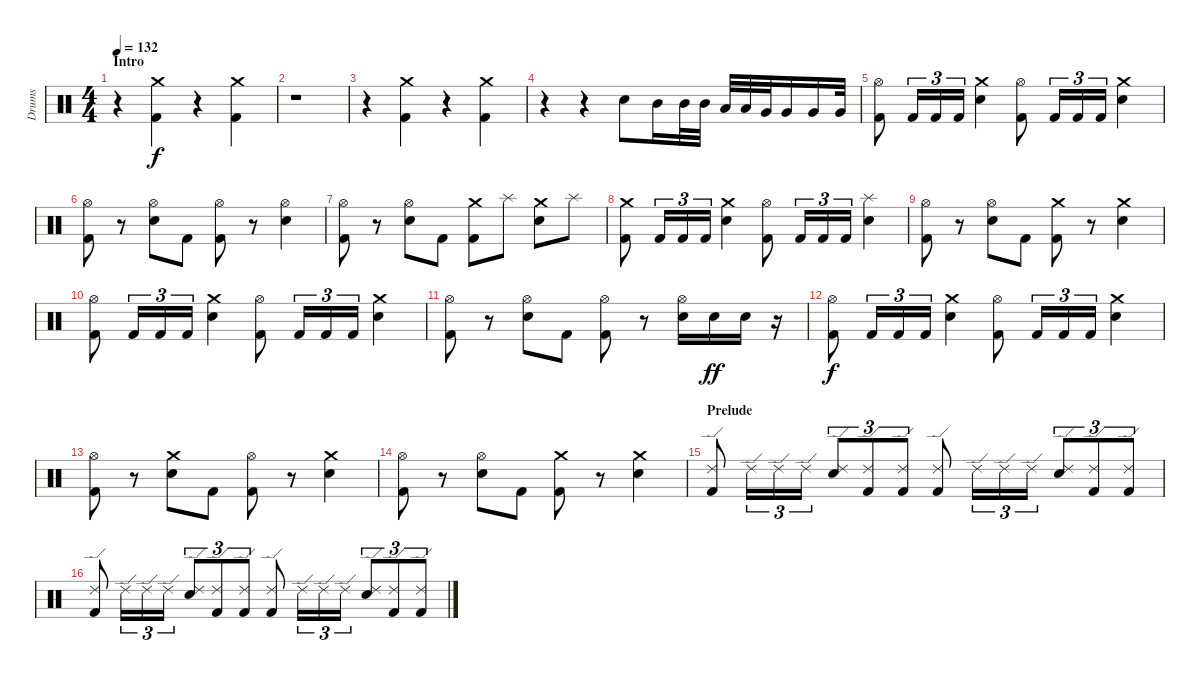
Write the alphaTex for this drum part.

\track ("Drums" "Drums") {instrument percussion}
\staff {score}
\articulation defaults
\ts (4 4)
\section ("" "Intro")
\tempo 132
\clef neutral
\ks c
r.4{dy f} ("Crash medium (hit)" "Kick (hit) 2").4 r.4 ("Crash medium (hit)" "Kick (hit) 2").4 |
r.1 |
r.4 ("Crash medium (hit)" "Kick (hit) 2").4 r.4 ("Crash medium (hit)" "Kick (hit) 2").4 |
r.4 r.4 "Electric Snare (hit)".8 "Mid Tom (hit)".16 "Mid Tom (hit)".32 "Mid Tom (hit)".32 "Low Tom (hit)".32 "Low Tom (hit)".32 "Very Low Tom (hit)".32 "Very Low Tom (hit)".16 "Very Low Tom (hit)".16 "Very Low Tom (hit)".32 |
("Hi-Hat (open)" "Kick (hit) 2").8 "Kick (hit) 2".16{tu (3 2)} "Kick (hit) 2".16{tu (3 2)} "Kick (hit) 2".16{tu (3 2)} ("Crash medium (hit)" "Electric Snare (hit)").4 ("Hi-Hat (open)" "Kick (hit) 2").8 "Kick (hit) 2".16{tu (3 2)} "Kick (hit) 2".16{tu (3 2)} "Kick (hit) 2".16{tu (3 2)} ("Crash medium (hit)" "Electric Snare (hit)").4 |
("Hi-Hat (open)" "Kick (hit) 2").8 r.8 ("Hi-Hat (open)" "Electric Snare (hit)").8 "Kick (hit) 2".8 ("Hi-Hat (open)" "Kick (hit) 2").8 r.8 ("Hi-Hat (open)" "Electric Snare (hit)").4 |
("Hi-Hat (open)" "Kick (hit) 2").8 r.8 ("Hi-Hat (open)" "Electric Snare (hit)").8 "Kick (hit) 2".8 ("Crash medium (hit)" "Kick (hit) 2").8 "Splash (hit)".8 ("Crash medium (hit)" "Electric Snare (hit)").8 "Splash (hit)".8 |
("Crash medium (hit)" "Kick (hit) 2").8 "Kick (hit) 2".16{tu (3 2)} "Kick (hit) 2".16{tu (3 2)} "Kick (hit) 2".16{tu (3 2)} ("Crash medium (hit)" "Electric Snare (hit)").4 ("Hi-Hat (open)" "Kick (hit) 2").8 "Kick (hit) 2".16{tu (3 2)} "Kick (hit) 2".16{tu (3 2)} "Kick (hit) 2".16{tu (3 2)} ("Splash (hit)" "Electric Snare (hit)").4 |
("Hi-Hat (open)" "Kick (hit) 2").8 r.8 ("Hi-Hat (open)" "Electric Snare (hit)").8 "Kick (hit) 2".8 ("Crash medium (hit)" "Kick (hit) 2").8 r.8 ("Crash medium (hit)" "Electric Snare (hit)").4 |
("Hi-Hat (open)" "Kick (hit) 2").8 "Kick (hit) 2".16{tu (3 2)} "Kick (hit) 2".16{tu (3 2)} "Kick (hit) 2".16{tu (3 2)} ("Crash medium (hit)" "Electric Snare (hit)").4 ("Hi-Hat (open)" "Kick (hit) 2").8 "Kick (hit) 2".16{tu (3 2)} "Kick (hit) 2".16{tu (3 2)} "Kick (hit) 2".16{tu (3 2)} ("Crash medium (hit)" "Electric Snare (hit)").4 |
("Hi-Hat (open)" "Kick (hit) 2").8 r.8 ("Hi-Hat (open)" "Electric Snare (hit)").8 "Kick (hit) 2".8 ("Hi-Hat (open)" "Kick (hit) 2").8 r.8 ("Hi-Hat (open)" "Electric Snare (hit)").16 "Electric Snare (hit)".16{dy ff} "Electric Snare (hit)".16 r.16 |
("Hi-Hat (open)" "Kick (hit) 2").8{dy f} "Kick (hit) 2".16{tu (3 2)} "Kick (hit) 2".16{tu (3 2)} "Kick (hit) 2".16{tu (3 2)} ("Crash medium (hit)" "Electric Snare (hit)").4 ("Hi-Hat (open)" "Kick (hit) 2").8 "Kick (hit) 2".16{tu (3 2)} "Kick (hit) 2".16{tu (3 2)} "Kick (hit) 2".16{tu (3 2)} ("Crash medium (hit)" "Electric Snare (hit)").4 |
("Hi-Hat (open)" "Kick (hit) 2").8 r.8 ("Crash medium (hit)" "Electric Snare (hit)").8 "Kick (hit) 2".8 ("Hi-Hat (open)" "Kick (hit) 2").8 r.8 ("Crash medium (hit)" "Electric Snare (hit)").4 |
("Hi-Hat (open)" "Kick (hit) 2").8 r.8 ("Hi-Hat (open)" "Electric Snare (hit)").8 "Kick (hit) 2".8 ("Crash medium (hit)" "Kick (hit) 2").8 r.8 ("Crash medium (hit)" "Electric Snare (hit)").4 |
\section ("" "Prelude")
("Ride (edge) 2" "Kick (hit) 2").8 "Ride (edge) 2".16{tu (3 2)} "Ride (edge) 2".16{tu (3 2)} "Ride (edge) 2".16{tu (3 2)} ("Ride (edge) 2" "Electric Snare (hit)").8{tu (3 2)} ("Ride (edge) 2" "Kick (hit) 2").8{tu (3 2)} ("Ride (edge) 2" "Kick (hit) 2").8{tu (3 2)} ("Ride (edge) 2" "Kick (hit) 2").8 "Ride (edge) 2".16{tu (3 2)} "Ride (edge) 2".16{tu (3 2)} "Ride (edge) 2".16{tu (3 2)} ("Ride (edge) 2" "Electric Snare (hit)").8{tu (3 2)} ("Ride (edge) 2" "Kick (hit) 2").8{tu (3 2)} ("Ride (edge) 2" "Kick (hit) 2").8{tu (3 2)} |
("Ride (edge) 2" "Kick (hit) 2").8 "Ride (edge) 2".16{tu (3 2)} "Ride (edge) 2".16{tu (3 2)} "Ride (edge) 2".16{tu (3 2)} ("Ride (edge) 2" "Electric Snare (hit)").8{tu (3 2)} ("Ride (edge) 2" "Kick (hit) 2").8{tu (3 2)} ("Ride (edge) 2" "Kick (hit) 2").8{tu (3 2)} ("Ride (edge) 2" "Kick (hit) 2").8 "Ride (edge) 2".16{tu (3 2)} "Ride (edge) 2".16{tu (3 2)} "Ride (edge) 2".16{tu (3 2)} ("Ride (edge) 2" "Electric Snare (hit)").8{tu (3 2)} ("Ride (edge) 2" "Kick (hit) 2").8{tu (3 2)} ("Ride (edge) 2" "Kick (hit) 2").8{tu (3 2)}
